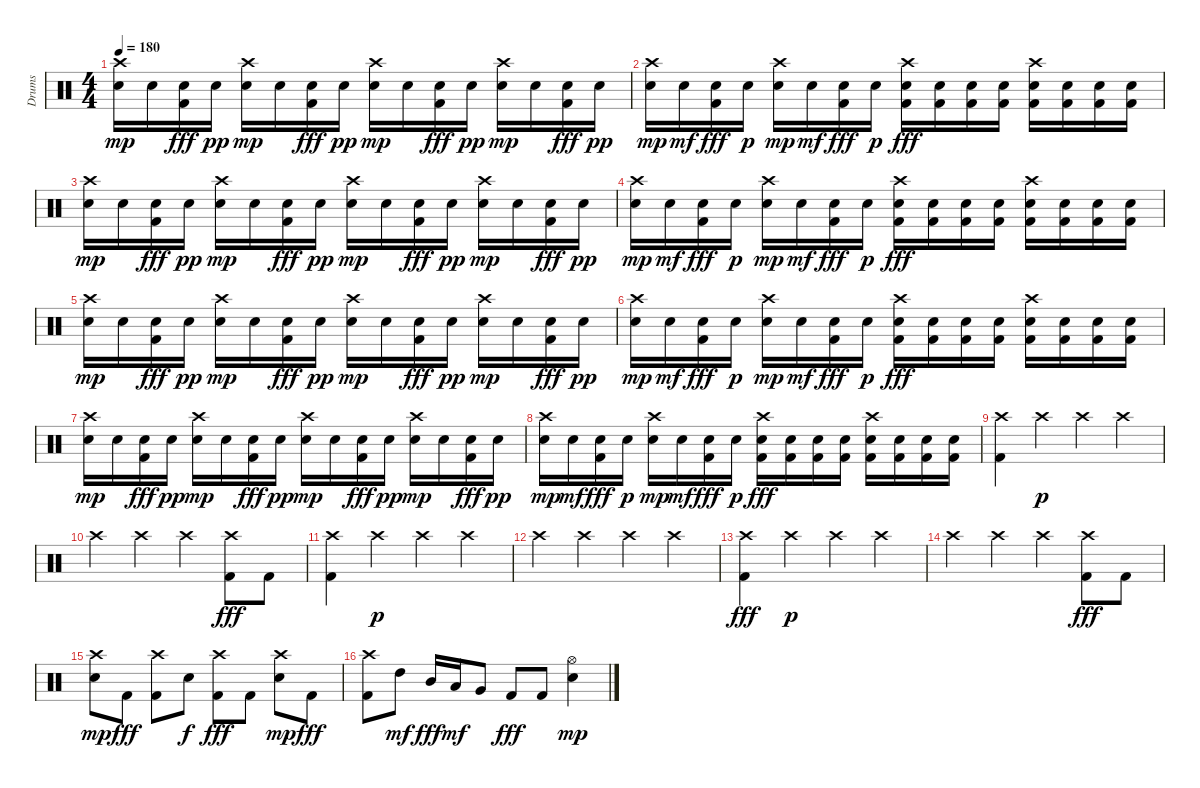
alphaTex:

\track ("Drums" "Drums") {instrument percussion}
\staff {score}
\articulation defaults
\ts (4 4)
\tempo 180
\clef neutral
\ks c
("Crash high (hit)" "Electric Snare (hit)").16{dy mp} "Electric Snare (hit)".16 ("Electric Snare (hit)" "Kick (hit) 2").16{dy fff} "Electric Snare (hit)".16{dy pp} ("Crash high (hit)" "Electric Snare (hit)").16{dy mp} "Electric Snare (hit)".16 ("Electric Snare (hit)" "Kick (hit) 2").16{dy fff} "Electric Snare (hit)".16{dy pp} ("Crash high (hit)" "Electric Snare (hit)").16{dy mp} "Electric Snare (hit)".16 ("Electric Snare (hit)" "Kick (hit) 2").16{dy fff} "Electric Snare (hit)".16{dy pp} ("Crash high (hit)" "Electric Snare (hit)").16{dy mp} "Electric Snare (hit)".16 ("Electric Snare (hit)" "Kick (hit) 2").16{dy fff} "Electric Snare (hit)".16{dy pp} |
("Crash high (hit)" "Electric Snare (hit)").16{dy mp} "Electric Snare (hit)".16{dy mf} ("Electric Snare (hit)" "Kick (hit) 2").16{dy fff} "Electric Snare (hit)".16{dy p} ("Crash high (hit)" "Electric Snare (hit)").16{dy mp} "Electric Snare (hit)".16{dy mf} ("Electric Snare (hit)" "Kick (hit) 2").16{dy fff} "Electric Snare (hit)".16{dy p} ("Crash high (hit)" "Electric Snare (hit)" "Kick (hit) 2").16{dy fff} ("Electric Snare (hit)" "Kick (hit) 2").16 ("Electric Snare (hit)" "Kick (hit) 2").16 ("Electric Snare (hit)" "Kick (hit) 2").16 ("Crash high (hit)" "Electric Snare (hit)" "Kick (hit) 2").16 ("Electric Snare (hit)" "Kick (hit) 2").16 ("Electric Snare (hit)" "Kick (hit) 2").16 ("Electric Snare (hit)" "Kick (hit) 2").16 |
("Crash high (hit)" "Electric Snare (hit)").16{dy mp} "Electric Snare (hit)".16 ("Electric Snare (hit)" "Kick (hit) 2").16{dy fff} "Electric Snare (hit)".16{dy pp} ("Crash high (hit)" "Electric Snare (hit)").16{dy mp} "Electric Snare (hit)".16 ("Electric Snare (hit)" "Kick (hit) 2").16{dy fff} "Electric Snare (hit)".16{dy pp} ("Crash high (hit)" "Electric Snare (hit)").16{dy mp} "Electric Snare (hit)".16 ("Electric Snare (hit)" "Kick (hit) 2").16{dy fff} "Electric Snare (hit)".16{dy pp} ("Crash high (hit)" "Electric Snare (hit)").16{dy mp} "Electric Snare (hit)".16 ("Electric Snare (hit)" "Kick (hit) 2").16{dy fff} "Electric Snare (hit)".16{dy pp} |
("Crash high (hit)" "Electric Snare (hit)").16{dy mp} "Electric Snare (hit)".16{dy mf} ("Electric Snare (hit)" "Kick (hit) 2").16{dy fff} "Electric Snare (hit)".16{dy p} ("Crash high (hit)" "Electric Snare (hit)").16{dy mp} "Electric Snare (hit)".16{dy mf} ("Electric Snare (hit)" "Kick (hit) 2").16{dy fff} "Electric Snare (hit)".16{dy p} ("Crash high (hit)" "Electric Snare (hit)" "Kick (hit) 2").16{dy fff} ("Electric Snare (hit)" "Kick (hit) 2").16 ("Electric Snare (hit)" "Kick (hit) 2").16 ("Electric Snare (hit)" "Kick (hit) 2").16 ("Crash high (hit)" "Electric Snare (hit)" "Kick (hit) 2").16 ("Electric Snare (hit)" "Kick (hit) 2").16 ("Electric Snare (hit)" "Kick (hit) 2").16 ("Electric Snare (hit)" "Kick (hit) 2").16 |
("Crash high (hit)" "Electric Snare (hit)").16{dy mp} "Electric Snare (hit)".16 ("Electric Snare (hit)" "Kick (hit) 2").16{dy fff} "Electric Snare (hit)".16{dy pp} ("Crash high (hit)" "Electric Snare (hit)").16{dy mp} "Electric Snare (hit)".16 ("Electric Snare (hit)" "Kick (hit) 2").16{dy fff} "Electric Snare (hit)".16{dy pp} ("Crash high (hit)" "Electric Snare (hit)").16{dy mp} "Electric Snare (hit)".16 ("Electric Snare (hit)" "Kick (hit) 2").16{dy fff} "Electric Snare (hit)".16{dy pp} ("Crash high (hit)" "Electric Snare (hit)").16{dy mp} "Electric Snare (hit)".16 ("Electric Snare (hit)" "Kick (hit) 2").16{dy fff} "Electric Snare (hit)".16{dy pp} |
("Crash high (hit)" "Electric Snare (hit)").16{dy mp} "Electric Snare (hit)".16{dy mf} ("Electric Snare (hit)" "Kick (hit) 2").16{dy fff} "Electric Snare (hit)".16{dy p} ("Crash high (hit)" "Electric Snare (hit)").16{dy mp} "Electric Snare (hit)".16{dy mf} ("Electric Snare (hit)" "Kick (hit) 2").16{dy fff} "Electric Snare (hit)".16{dy p} ("Crash high (hit)" "Electric Snare (hit)" "Kick (hit) 2").16{dy fff} ("Electric Snare (hit)" "Kick (hit) 2").16 ("Electric Snare (hit)" "Kick (hit) 2").16 ("Electric Snare (hit)" "Kick (hit) 2").16 ("Crash high (hit)" "Electric Snare (hit)" "Kick (hit) 2").16 ("Electric Snare (hit)" "Kick (hit) 2").16 ("Electric Snare (hit)" "Kick (hit) 2").16 ("Electric Snare (hit)" "Kick (hit) 2").16 |
("Crash high (hit)" "Electric Snare (hit)").16{dy mp} "Electric Snare (hit)".16 ("Electric Snare (hit)" "Kick (hit) 2").16{dy fff} "Electric Snare (hit)".16{dy pp} ("Crash high (hit)" "Electric Snare (hit)").16{dy mp} "Electric Snare (hit)".16 ("Electric Snare (hit)" "Kick (hit) 2").16{dy fff} "Electric Snare (hit)".16{dy pp} ("Crash high (hit)" "Electric Snare (hit)").16{dy mp} "Electric Snare (hit)".16 ("Electric Snare (hit)" "Kick (hit) 2").16{dy fff} "Electric Snare (hit)".16{dy pp} ("Crash high (hit)" "Electric Snare (hit)").16{dy mp} "Electric Snare (hit)".16 ("Electric Snare (hit)" "Kick (hit) 2").16{dy fff} "Electric Snare (hit)".16{dy pp} |
("Crash high (hit)" "Electric Snare (hit)").16{dy mp} "Electric Snare (hit)".16{dy mf} ("Electric Snare (hit)" "Kick (hit) 2").16{dy fff} "Electric Snare (hit)".16{dy p} ("Crash high (hit)" "Electric Snare (hit)").16{dy mp} "Electric Snare (hit)".16{dy mf} ("Electric Snare (hit)" "Kick (hit) 2").16{dy fff} "Electric Snare (hit)".16{dy p} ("Crash high (hit)" "Electric Snare (hit)" "Kick (hit) 2").16{dy fff} ("Electric Snare (hit)" "Kick (hit) 2").16 ("Electric Snare (hit)" "Kick (hit) 2").16 ("Electric Snare (hit)" "Kick (hit) 2").16 ("Crash high (hit)" "Electric Snare (hit)" "Kick (hit) 2").16 ("Electric Snare (hit)" "Kick (hit) 2").16 ("Electric Snare (hit)" "Kick (hit) 2").16 ("Electric Snare (hit)" "Kick (hit) 2").16 |
("Crash high (hit)" "Kick (hit) 2").4 "Crash high (hit)".4{dy p} "Crash high (hit)".4 "Crash high (hit)".4 |
"Crash high (hit)".4 "Crash high (hit)".4 "Crash high (hit)".4 ("Crash high (hit)" "Kick (hit) 2").8{dy fff} "Kick (hit) 2".8 |
("Crash high (hit)" "Kick (hit) 2").4 "Crash high (hit)".4{dy p} "Crash high (hit)".4 "Crash high (hit)".4 |
"Crash high (hit)".4 "Crash high (hit)".4 "Crash high (hit)".4 "Crash high (hit)".4 |
("Crash high (hit)" "Kick (hit) 2").4{dy fff} "Crash high (hit)".4{dy p} "Crash high (hit)".4 "Crash high (hit)".4 |
"Crash high (hit)".4 "Crash high (hit)".4 "Crash high (hit)".4 ("Crash high (hit)" "Kick (hit) 2").8{dy fff} "Kick (hit) 2".8 |
("Crash high (hit)" "Electric Snare (hit)").8{dy mp} "Kick (hit) 2".8{dy fff} ("Crash high (hit)" "Kick (hit) 2").8 "Electric Snare (hit)".8{dy f} ("Crash high (hit)" "Kick (hit) 2").8{dy fff} "Kick (hit) 2".8 ("Crash high (hit)" "Electric Snare (hit)").8{dy mp} "Kick (hit) 2".8{dy fff} |
("Crash high (hit)" "Kick (hit) 2").8 "High Tom (hit)".8{dy mf} "Mid Tom (hit)".16{dy fff} "Low Tom (hit)".16{dy mf} "Very Low Tom (hit)".8 "Kick (hit) 2".8{dy fff} "Kick (hit) 2".8 ("Hi-Hat (open)" "Electric Snare (hit)").4{dy mp}
